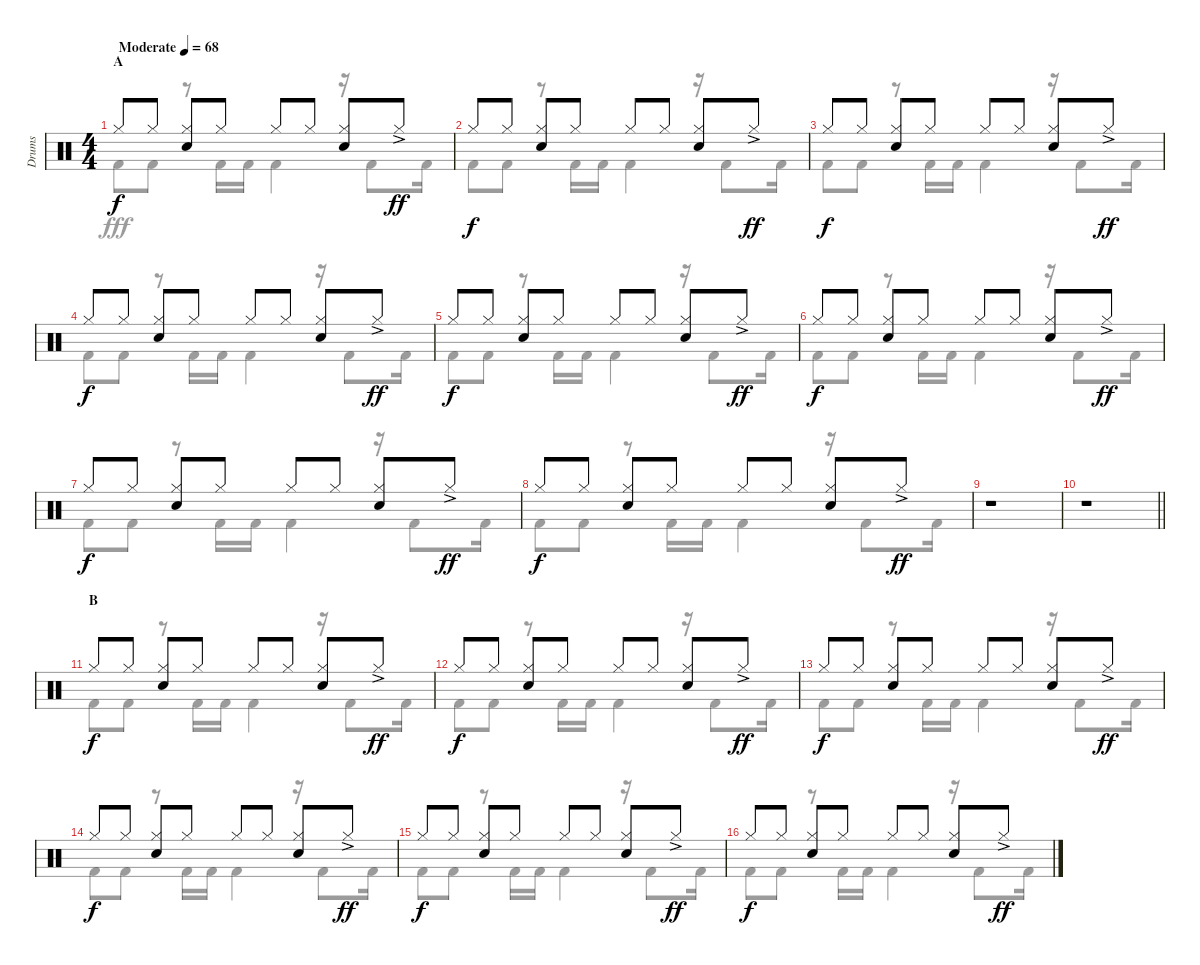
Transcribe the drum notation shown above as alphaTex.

\track ("Drums" "Drums") {instrument percussion}
\staff {score}
\articulation defaults
\voice
\ts (4 4)
\section ("" "A")
\tempo (68 "Moderate")
\clef neutral
\ks c "Hi-Hat (closed)".8{dy f} "Hi-Hat (closed)".8
("Hi-Hat (closed)" "Snare (hit) 2").8 "Hi-Hat (closed)".8 "Hi-Hat (closed)".8 "Hi-Hat (closed)".8 ("Hi-Hat (closed)" "Snare (hit) 2").8 "Hi-Hat (closed)"{ac}.8{dy ff} |
"Hi-Hat (closed)".8{dy f} "Hi-Hat (closed)".8 ("Hi-Hat (closed)" "Snare (hit) 2").8 "Hi-Hat (closed)".8 "Hi-Hat (closed)".8 "Hi-Hat (closed)".8 ("Hi-Hat (closed)" "Snare (hit) 2").8 "Hi-Hat (closed)"{ac}.8{dy ff} |
"Hi-Hat (closed)".8{dy f} "Hi-Hat (closed)".8 ("Hi-Hat (closed)" "Snare (hit) 2").8 "Hi-Hat (closed)".8 "Hi-Hat (closed)".8 "Hi-Hat (closed)".8 ("Hi-Hat (closed)" "Snare (hit) 2").8 "Hi-Hat (closed)"{ac}.8{dy ff} |
"Hi-Hat (closed)".8{dy f} "Hi-Hat (closed)".8 ("Hi-Hat (closed)" "Snare (hit) 2").8 "Hi-Hat (closed)".8 "Hi-Hat (closed)".8 "Hi-Hat (closed)".8 ("Hi-Hat (closed)" "Snare (hit) 2").8 "Hi-Hat (closed)"{ac}.8{dy ff} |
"Hi-Hat (closed)".8{dy f} "Hi-Hat (closed)".8 ("Hi-Hat (closed)" "Snare (hit) 2").8 "Hi-Hat (closed)".8 "Hi-Hat (closed)".8 "Hi-Hat (closed)".8 ("Hi-Hat (closed)" "Snare (hit) 2").8 "Hi-Hat (closed)"{ac}.8{dy ff} |
"Hi-Hat (closed)".8{dy f} "Hi-Hat (closed)".8 ("Hi-Hat (closed)" "Snare (hit) 2").8 "Hi-Hat (closed)".8 "Hi-Hat (closed)".8 "Hi-Hat (closed)".8 ("Hi-Hat (closed)" "Snare (hit) 2").8 "Hi-Hat (closed)"{ac}.8{dy ff} |
"Hi-Hat (closed)".8{dy f} "Hi-Hat (closed)".8 ("Hi-Hat (closed)" "Snare (hit) 2").8 "Hi-Hat (closed)".8 "Hi-Hat (closed)".8 "Hi-Hat (closed)".8 ("Hi-Hat (closed)" "Snare (hit) 2").8 "Hi-Hat (closed)"{ac}.8{dy ff} |
"Hi-Hat (closed)".8{dy f} "Hi-Hat (closed)".8 ("Hi-Hat (closed)" "Snare (hit) 2").8 "Hi-Hat (closed)".8 "Hi-Hat (closed)".8 "Hi-Hat (closed)".8 ("Hi-Hat (closed)" "Snare (hit) 2").8 "Hi-Hat (closed)"{ac}.8{dy ff} |
r.1 |
\barLineRight lightlight
r.1 |
\section ("" "B")
"Hi-Hat (closed)".8{dy f} "Hi-Hat (closed)".8 ("Hi-Hat (closed)" "Snare (hit) 2").8 "Hi-Hat (closed)".8 "Hi-Hat (closed)".8 "Hi-Hat (closed)".8 ("Hi-Hat (closed)" "Snare (hit) 2").8 "Hi-Hat (closed)"{ac}.8{dy ff} |
"Hi-Hat (closed)".8{dy f} "Hi-Hat (closed)".8 ("Hi-Hat (closed)" "Snare (hit) 2").8 "Hi-Hat (closed)".8 "Hi-Hat (closed)".8 "Hi-Hat (closed)".8 ("Hi-Hat (closed)" "Snare (hit) 2").8 "Hi-Hat (closed)"{ac}.8{dy ff} |
"Hi-Hat (closed)".8{dy f} "Hi-Hat (closed)".8 ("Hi-Hat (closed)" "Snare (hit) 2").8 "Hi-Hat (closed)".8 "Hi-Hat (closed)".8 "Hi-Hat (closed)".8 ("Hi-Hat (closed)" "Snare (hit) 2").8 "Hi-Hat (closed)"{ac}.8{dy ff} |
"Hi-Hat (closed)".8{dy f} "Hi-Hat (closed)".8 ("Hi-Hat (closed)" "Snare (hit) 2").8 "Hi-Hat (closed)".8 "Hi-Hat (closed)".8 "Hi-Hat (closed)".8 ("Hi-Hat (closed)" "Snare (hit) 2").8 "Hi-Hat (closed)"{ac}.8{dy ff} |
"Hi-Hat (closed)".8{dy f} "Hi-Hat (closed)".8 ("Hi-Hat (closed)" "Snare (hit) 2").8 "Hi-Hat (closed)".8 "Hi-Hat (closed)".8 "Hi-Hat (closed)".8 ("Hi-Hat (closed)" "Snare (hit) 2").8 "Hi-Hat (closed)"{ac}.8{dy ff} |
"Hi-Hat (closed)".8{dy f} "Hi-Hat (closed)".8 ("Hi-Hat (closed)" "Snare (hit) 2").8 "Hi-Hat (closed)".8 "Hi-Hat (closed)".8 "Hi-Hat (closed)".8 ("Hi-Hat (closed)" "Snare (hit) 2").8 "Hi-Hat (closed)"{ac}.8{dy ff}
\voice
\clef neutral
\ottava regular
\simile none
\ks c "Kick (hit) 2".8{dy fff} "Kick (hit) 2".8
r.8 "Kick (hit) 2".16 "Kick (hit) 2".16 "Kick (hit) 2".4 r.16 "Kick (hit) 2".8 "Kick (hit) 2".16 |
"Kick (hit) 2".8 "Kick (hit) 2".8 r.8 "Kick (hit) 2".16 "Kick (hit) 2".16 "Kick (hit) 2".4 r.16 "Kick (hit) 2".8 "Kick (hit) 2".16 |
"Kick (hit) 2".8 "Kick (hit) 2".8 r.8 "Kick (hit) 2".16 "Kick (hit) 2".16 "Kick (hit) 2".4 r.16 "Kick (hit) 2".8 "Kick (hit) 2".16 |
"Kick (hit) 2".8 "Kick (hit) 2".8 r.8 "Kick (hit) 2".16 "Kick (hit) 2".16 "Kick (hit) 2".4 r.16 "Kick (hit) 2".8 "Kick (hit) 2".16 |
"Kick (hit) 2".8 "Kick (hit) 2".8 r.8 "Kick (hit) 2".16 "Kick (hit) 2".16 "Kick (hit) 2".4 r.16 "Kick (hit) 2".8 "Kick (hit) 2".16 |
"Kick (hit) 2".8 "Kick (hit) 2".8 r.8 "Kick (hit) 2".16 "Kick (hit) 2".16 "Kick (hit) 2".4 r.16 "Kick (hit) 2".8 "Kick (hit) 2".16 |
"Kick (hit) 2".8 "Kick (hit) 2".8 r.8 "Kick (hit) 2".16 "Kick (hit) 2".16 "Kick (hit) 2".4 r.16 "Kick (hit) 2".8 "Kick (hit) 2".16 |
"Kick (hit) 2".8 "Kick (hit) 2".8 r.8 "Kick (hit) 2".16 "Kick (hit) 2".16 "Kick (hit) 2".4 r.16 "Kick (hit) 2".8 "Kick (hit) 2".16 |
|
\barLineRight lightlight
|
"Kick (hit) 2".8 "Kick (hit) 2".8 r.8 "Kick (hit) 2".16 "Kick (hit) 2".16 "Kick (hit) 2".4 r.16 "Kick (hit) 2".8 "Kick (hit) 2".16 |
"Kick (hit) 2".8 "Kick (hit) 2".8 r.8 "Kick (hit) 2".16 "Kick (hit) 2".16 "Kick (hit) 2".4 r.16 "Kick (hit) 2".8 "Kick (hit) 2".16 |
"Kick (hit) 2".8 "Kick (hit) 2".8 r.8 "Kick (hit) 2".16 "Kick (hit) 2".16 "Kick (hit) 2".4 r.16 "Kick (hit) 2".8 "Kick (hit) 2".16 |
"Kick (hit) 2".8 "Kick (hit) 2".8 r.8 "Kick (hit) 2".16 "Kick (hit) 2".16 "Kick (hit) 2".4 r.16 "Kick (hit) 2".8 "Kick (hit) 2".16 |
"Kick (hit) 2".8 "Kick (hit) 2".8 r.8 "Kick (hit) 2".16 "Kick (hit) 2".16 "Kick (hit) 2".4 r.16 "Kick (hit) 2".8 "Kick (hit) 2".16 |
"Kick (hit) 2".8 "Kick (hit) 2".8 r.8 "Kick (hit) 2".16 "Kick (hit) 2".16 "Kick (hit) 2".4 r.16 "Kick (hit) 2".8 "Kick (hit) 2".16
